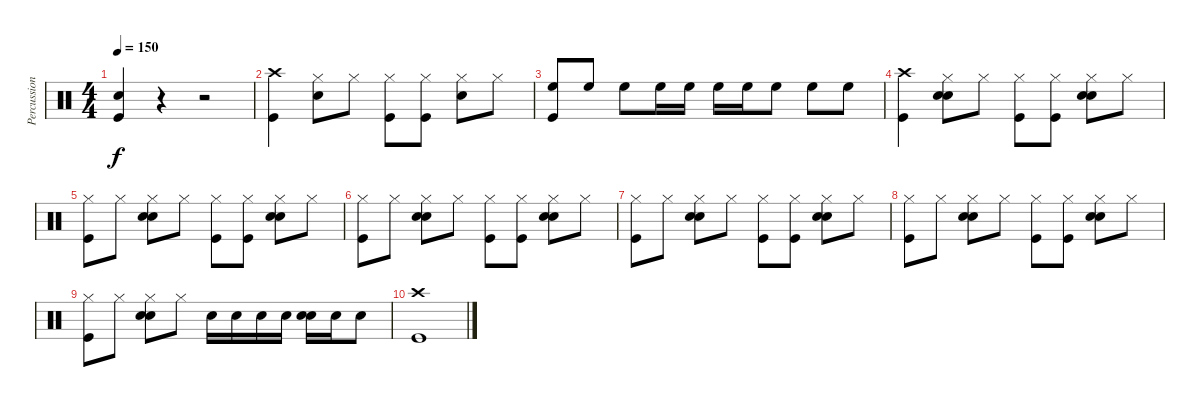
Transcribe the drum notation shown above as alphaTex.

\track ("Percussion" "Percussion") {instrument percussion}
\staff {score}
\articulation defaults
\ts (4 4)
\tempo 150
\clef neutral
\ks c
("Snare (hit) 2" "Kick (hit)").4{dy f} r.4 r.2 |
("Crash high (hit)" "Kick (hit)").4 ("Hi-Hat (closed)" "Snare (hit) 2").8 "Hi-Hat (closed)".8 ("Hi-Hat (closed)" "Kick (hit)").8 ("Hi-Hat (closed)" "Kick (hit)").8 ("Hi-Hat (closed)" "Snare (hit) 2").8 "Hi-Hat (closed)".8 |
("High Floor Tom (hit)" "Kick (hit)").8 "High Floor Tom (hit)".8 "High Floor Tom (hit)".8 "High Floor Tom (hit)".16 "High Floor Tom (hit)".16 "High Floor Tom (hit)".16 "High Floor Tom (hit)".16 "High Floor Tom (hit)".8 "High Floor Tom (hit)".8 "High Floor Tom (hit)".8 |
("Crash high (hit)" "Kick (hit)").4 ("Hi-Hat (closed)" "Hand Clap (hit)" "Snare (hit) 2").8 "Hi-Hat (closed)".8 ("Hi-Hat (closed)" "Kick (hit)").8 ("Hi-Hat (closed)" "Kick (hit)").8 ("Hi-Hat (closed)" "Hand Clap (hit)" "Snare (hit) 2").8 "Hi-Hat (closed)".8 |
("Hi-Hat (closed)" "Kick (hit)").8 "Hi-Hat (closed)".8 ("Hi-Hat (closed)" "Hand Clap (hit)" "Snare (hit) 2").8 "Hi-Hat (closed)".8 ("Hi-Hat (closed)" "Kick (hit)").8 ("Hi-Hat (closed)" "Kick (hit)").8 ("Hi-Hat (closed)" "Hand Clap (hit)" "Snare (hit) 2").8 "Hi-Hat (closed)".8 |
("Hi-Hat (closed)" "Kick (hit)").8 "Hi-Hat (closed)".8 ("Hi-Hat (closed)" "Hand Clap (hit)" "Snare (hit) 2").8 "Hi-Hat (closed)".8 ("Hi-Hat (closed)" "Kick (hit)").8 ("Hi-Hat (closed)" "Kick (hit)").8 ("Hi-Hat (closed)" "Hand Clap (hit)" "Snare (hit) 2").8 "Hi-Hat (closed)".8 |
("Hi-Hat (closed)" "Kick (hit)").8 "Hi-Hat (closed)".8 ("Hi-Hat (closed)" "Hand Clap (hit)" "Snare (hit) 2").8 "Hi-Hat (closed)".8 ("Hi-Hat (closed)" "Kick (hit)").8 ("Hi-Hat (closed)" "Kick (hit)").8 ("Hi-Hat (closed)" "Hand Clap (hit)" "Snare (hit) 2").8 "Hi-Hat (closed)".8 |
("Hi-Hat (closed)" "Kick (hit)").8 "Hi-Hat (closed)".8 ("Hi-Hat (closed)" "Hand Clap (hit)" "Snare (hit) 2").8 "Hi-Hat (closed)".8 ("Hi-Hat (closed)" "Kick (hit)").8 ("Hi-Hat (closed)" "Kick (hit)").8 ("Hi-Hat (closed)" "Hand Clap (hit)" "Snare (hit) 2").8 "Hi-Hat (closed)".8 |
("Hi-Hat (closed)" "Kick (hit)").8 "Hi-Hat (closed)".8 ("Hi-Hat (closed)" "Hand Clap (hit)" "Snare (hit) 2").8 "Hi-Hat (closed)".8 "Snare (hit) 2".16 "Snare (hit) 2".16 "Snare (hit) 2".16 "Snare (hit) 2".16 ("Hand Clap (hit)" "Snare (hit) 2").16 "Snare (hit) 2".16 "Snare (hit) 2".8 |
("Crash high (hit)" "Kick (hit)").1
